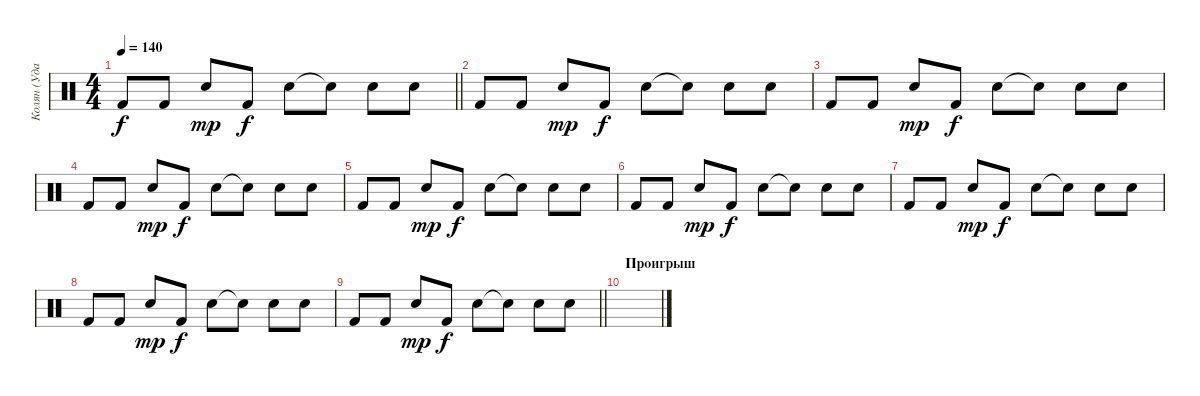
\track ("Колян (Ударные)" "Колян (Уда") {instrument percussion}
\staff {score}
\articulation defaults
\ts (4 4)
\tempo 140
\clef neutral
\barLineRight lightlight
\ks c "Kick (hit) 2".8{dy f} "Kick (hit) 2".8 "Snare (hit) 2".8{dy mp} "Kick (hit) 2".8{dy f} "Snare (hit) 2".8 "Snare (hit)"{t}.8 "Snare (hit) 2".8 "Snare (hit) 2".8
|
"Kick (hit) 2".8 "Kick (hit) 2".8 "Snare (hit) 2".8{dy mp} "Kick (hit) 2".8{dy f} "Snare (hit) 2".8 "Snare (hit)"{t}.8 "Snare (hit) 2".8 "Snare (hit) 2".8 |
"Kick (hit) 2".8 "Kick (hit) 2".8 "Snare (hit) 2".8{dy mp} "Kick (hit) 2".8{dy f} "Snare (hit) 2".8 "Snare (hit)"{t}.8 "Snare (hit) 2".8 "Snare (hit) 2".8 |
"Kick (hit) 2".8 "Kick (hit) 2".8 "Snare (hit) 2".8{dy mp} "Kick (hit) 2".8{dy f} "Snare (hit) 2".8 "Snare (hit)"{t}.8 "Snare (hit) 2".8 "Snare (hit) 2".8 |
"Kick (hit) 2".8 "Kick (hit) 2".8 "Snare (hit) 2".8{dy mp} "Kick (hit) 2".8{dy f} "Snare (hit) 2".8 "Snare (hit)"{t}.8 "Snare (hit) 2".8 "Snare (hit) 2".8 |
"Kick (hit) 2".8 "Kick (hit) 2".8 "Snare (hit) 2".8{dy mp} "Kick (hit) 2".8{dy f} "Snare (hit) 2".8 "Snare (hit)"{t}.8 "Snare (hit) 2".8 "Snare (hit) 2".8 |
"Kick (hit) 2".8 "Kick (hit) 2".8 "Snare (hit) 2".8{dy mp} "Kick (hit) 2".8{dy f} "Snare (hit) 2".8 "Snare (hit)"{t}.8 "Snare (hit) 2".8 "Snare (hit) 2".8 |
"Kick (hit) 2".8 "Kick (hit) 2".8 "Snare (hit) 2".8{dy mp} "Kick (hit) 2".8{dy f} "Snare (hit) 2".8 "Snare (hit)"{t}.8 "Snare (hit) 2".8 "Snare (hit) 2".8 |
\barLineRight lightlight "Kick (hit) 2".8 "Kick (hit) 2".8 "Snare (hit) 2".8{dy mp} "Kick (hit) 2".8{dy f} "Snare (hit) 2".8 "Snare (hit)"{t}.8 "Snare (hit) 2".8 "Snare (hit) 2".8
|
\section ("" "Проигрыш")
